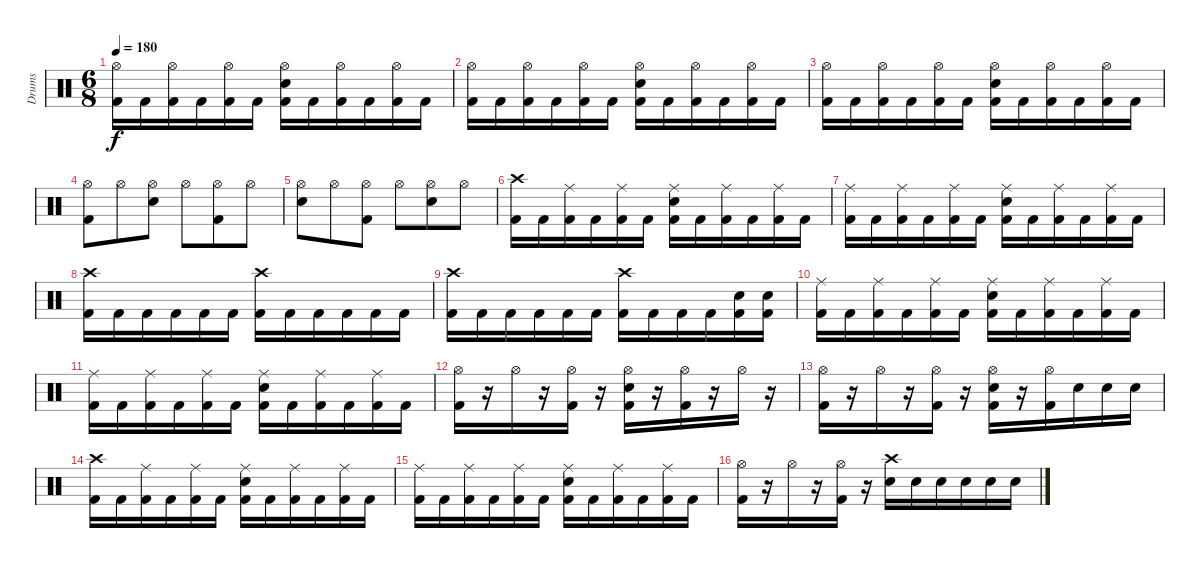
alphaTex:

\track ("Drums" "Drums") {instrument percussion}
\staff {score}
\articulation defaults
\ts (6 8)
\tempo 180
\clef neutral
\ks c
("Kick (hit) 2" "Hi-Hat (open)").16{dy f} "Kick (hit) 2".16 ("Kick (hit) 2" "Hi-Hat (open)").16 "Kick (hit) 2".16 ("Kick (hit) 2" "Hi-Hat (open)").16 "Kick (hit) 2".16 ("Kick (hit) 2" "Electric Snare (hit)" "Hi-Hat (open)").16 "Kick (hit) 2".16 ("Kick (hit) 2" "Hi-Hat (open)").16 "Kick (hit) 2".16 ("Kick (hit) 2" "Hi-Hat (open)").16 "Kick (hit) 2".16 |
("Kick (hit) 2" "Hi-Hat (open)").16 "Kick (hit) 2".16 ("Kick (hit) 2" "Hi-Hat (open)").16 "Kick (hit) 2".16 ("Kick (hit) 2" "Hi-Hat (open)").16 "Kick (hit) 2".16 ("Kick (hit) 2" "Electric Snare (hit)" "Hi-Hat (open)").16 "Kick (hit) 2".16 ("Kick (hit) 2" "Hi-Hat (open)").16 "Kick (hit) 2".16 ("Kick (hit) 2" "Hi-Hat (open)").16 "Kick (hit) 2".16 |
("Kick (hit) 2" "Hi-Hat (open)").16 "Kick (hit) 2".16 ("Kick (hit) 2" "Hi-Hat (open)").16 "Kick (hit) 2".16 ("Kick (hit) 2" "Hi-Hat (open)").16 "Kick (hit) 2".16 ("Kick (hit) 2" "Electric Snare (hit)" "Hi-Hat (open)").16 "Kick (hit) 2".16 ("Kick (hit) 2" "Hi-Hat (open)").16 "Kick (hit) 2".16 ("Kick (hit) 2" "Hi-Hat (open)").16 "Kick (hit) 2".16 |
("Kick (hit) 2" "Hi-Hat (open)").8 "Hi-Hat (open)".8 ("Electric Snare (hit)" "Hi-Hat (open)").8 "Hi-Hat (open)".8 ("Kick (hit) 2" "Hi-Hat (open)").8 "Hi-Hat (open)".8 |
("Electric Snare (hit)" "Hi-Hat (open)").8 "Hi-Hat (open)".8 ("Kick (hit) 2" "Hi-Hat (open)").8 "Hi-Hat (open)".8 ("Electric Snare (hit)" "Hi-Hat (open)").8 "Hi-Hat (open)".8 |
("Kick (hit) 2" "Crash high (hit)").16 "Kick (hit) 2".16 ("Kick (hit) 2" "Ride (middle)").16 "Kick (hit) 2".16 ("Kick (hit) 2" "Ride (middle)").16 "Kick (hit) 2".16 ("Kick (hit) 2" "Electric Snare (hit)" "Ride (middle)").16 "Kick (hit) 2".16 ("Kick (hit) 2" "Ride (middle)").16 "Kick (hit) 2".16 ("Kick (hit) 2" "Ride (middle)").16 "Kick (hit) 2".16 |
("Kick (hit) 2" "Ride (middle)").16 "Kick (hit) 2".16 ("Kick (hit) 2" "Ride (middle)").16 "Kick (hit) 2".16 ("Kick (hit) 2" "Ride (middle)").16 "Kick (hit) 2".16 ("Kick (hit) 2" "Electric Snare (hit)" "Ride (middle)").16 "Kick (hit) 2".16 ("Kick (hit) 2" "Ride (middle)").16 "Kick (hit) 2".16 ("Kick (hit) 2" "Ride (middle)").16 "Kick (hit) 2".16 |
("Kick (hit) 2" "Crash high (hit)").16 "Kick (hit) 2".16 "Kick (hit) 2".16 "Kick (hit) 2".16 "Kick (hit) 2".16 "Kick (hit) 2".16 ("Kick (hit) 2" "Crash high (hit)").16 "Kick (hit) 2".16 "Kick (hit) 2".16 "Kick (hit) 2".16 "Kick (hit) 2".16 "Kick (hit) 2".16 |
("Kick (hit) 2" "Crash high (hit)").16 "Kick (hit) 2".16 "Kick (hit) 2".16 "Kick (hit) 2".16 "Kick (hit) 2".16 "Kick (hit) 2".16 ("Kick (hit) 2" "Crash high (hit)").16 "Kick (hit) 2".16 "Kick (hit) 2".16 "Kick (hit) 2".16 ("Kick (hit) 2" "Electric Snare (hit)").16 ("Kick (hit) 2" "Electric Snare (hit)").16 |
("Kick (hit) 2" "Ride (middle)").16 "Kick (hit) 2".16 ("Kick (hit) 2" "Ride (middle)").16 "Kick (hit) 2".16 ("Kick (hit) 2" "Ride (middle)").16 "Kick (hit) 2".16 ("Kick (hit) 2" "Electric Snare (hit)" "Ride (middle)").16 "Kick (hit) 2".16 ("Kick (hit) 2" "Ride (middle)").16 "Kick (hit) 2".16 ("Kick (hit) 2" "Ride (middle)").16 "Kick (hit) 2".16 |
("Kick (hit) 2" "Ride (middle)").16 "Kick (hit) 2".16 ("Kick (hit) 2" "Ride (middle)").16 "Kick (hit) 2".16 ("Kick (hit) 2" "Ride (middle)").16 "Kick (hit) 2".16 ("Kick (hit) 2" "Electric Snare (hit)" "Ride (middle)").16 "Kick (hit) 2".16 ("Kick (hit) 2" "Ride (middle)").16 "Kick (hit) 2".16 ("Kick (hit) 2" "Ride (middle)").16 "Kick (hit) 2".16 |
("Kick (hit) 2" "Hi-Hat (open)").16 r.16 "Hi-Hat (open)".16 r.16 ("Kick (hit) 2" "Hi-Hat (open)").16 r.16 ("Kick (hit) 2" "Electric Snare (hit)" "Hi-Hat (open)").16 r.16 ("Kick (hit) 2" "Hi-Hat (open)").16 r.16 "Hi-Hat (open)".16 r.16 |
("Kick (hit) 2" "Hi-Hat (open)").16 r.16 "Hi-Hat (open)".16 r.16 ("Kick (hit) 2" "Hi-Hat (open)").16 r.16 ("Kick (hit) 2" "Electric Snare (hit)" "Hi-Hat (open)").16 r.16 ("Kick (hit) 2" "Hi-Hat (open)").16 "Electric Snare (hit)".16 "Electric Snare (hit)".16 "Electric Snare (hit)".16 |
("Kick (hit) 2" "Crash high (hit)").16 "Kick (hit) 2".16 ("Kick (hit) 2" "Ride (middle)").16 "Kick (hit) 2".16 ("Kick (hit) 2" "Ride (middle)").16 "Kick (hit) 2".16 ("Kick (hit) 2" "Electric Snare (hit)" "Ride (middle)").16 "Kick (hit) 2".16 ("Kick (hit) 2" "Ride (middle)").16 "Kick (hit) 2".16 ("Kick (hit) 2" "Ride (middle)").16 "Kick (hit) 2".16 |
("Kick (hit) 2" "Ride (middle)").16 "Kick (hit) 2".16 ("Kick (hit) 2" "Ride (middle)").16 "Kick (hit) 2".16 ("Kick (hit) 2" "Ride (middle)").16 "Kick (hit) 2".16 ("Kick (hit) 2" "Electric Snare (hit)" "Ride (middle)").16 "Kick (hit) 2".16 ("Kick (hit) 2" "Ride (middle)").16 "Kick (hit) 2".16 ("Kick (hit) 2" "Ride (middle)").16 "Kick (hit) 2".16 |
("Kick (hit) 2" "Hi-Hat (open)").16 r.16 "Hi-Hat (open)".16 r.16 ("Kick (hit) 2" "Hi-Hat (open)").16 r.16 ("Electric Snare (hit)" "Crash high (hit)").16 "Electric Snare (hit)".16 "Electric Snare (hit)".16 "Electric Snare (hit)".16 "Electric Snare (hit)".16 "Electric Snare (hit)".16
